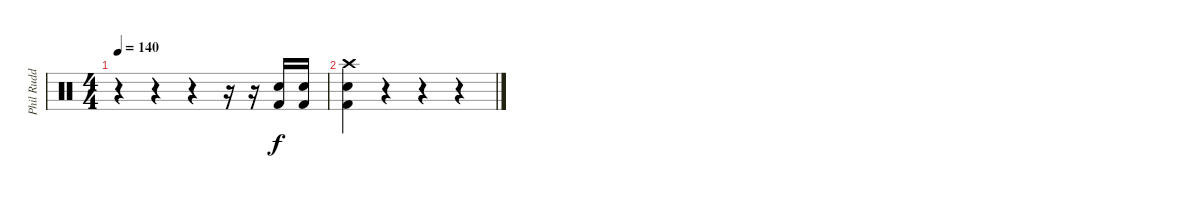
\track ("Phil Rudd" "Phil Rudd") {instrument percussion}
\staff {score}
\articulation defaults
\ts (4 4)
\tempo 140
\clef neutral
\ks c
r.4{dy f} r.4 r.4 r.16 r.16 ("Electric Snare (hit)" "Kick (hit) 2").16 ("Electric Snare (hit)" "Kick (hit) 2").16 |
("Crash high (hit)" "Electric Snare (hit)" "Kick (hit) 2").4 r.4 r.4 r.4
